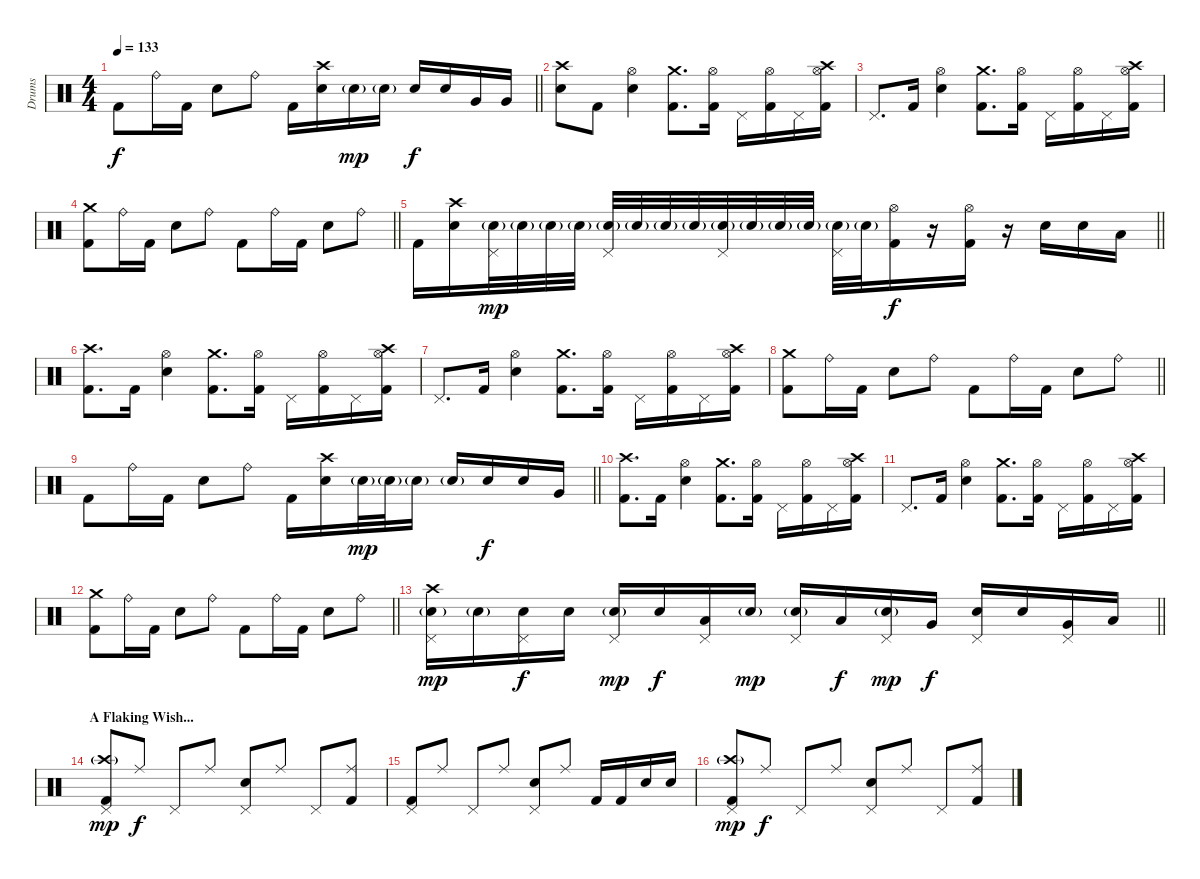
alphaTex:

\track ("Drums" "Drums") {instrument percussion}
\staff {score}
\articulation defaults
\ts (4 4)
\tempo 133
\clef neutral
\barLineRight lightlight
\ks c "Kick (hit) 2".8{dy f} "Ride (bell)".16 "Kick (hit) 2".16 "Snare (hit) 2".8 "Ride (bell)".8 "Kick (hit) 2".16
("Crash high (hit)" "Snare (hit) 2").16 "Electric Snare (hit)"{g}.16{dy mp} "Electric Snare (hit)"{g}.16 "Snare (hit) 2".16{dy f} "Snare (hit) 2".16 "Very Low Tom (hit)".16 "Very Low Tom (hit)".16 |
\section ("" "")
("Crash high (hit)" "Snare (hit) 2").8 "Kick (hit) 2".8 ("Hi-Hat (open)" "Snare (hit) 2").4 ("Crash medium (hit)" "Kick (hit) 2").8{d} ("Hi-Hat (open)" "Kick (hit) 2").16 "Pedal Hi-Hat (hit)".16 ("Hi-Hat (open)" "Kick (hit) 2").16 "Pedal Hi-Hat (hit)".16 ("Crash high (hit)" "Hi-Hat (open)" "Kick (hit) 2").16 |
"Pedal Hi-Hat (hit)".8{d} "Kick (hit) 2".16 ("Hi-Hat (open)" "Snare (hit) 2").4 ("Crash medium (hit)" "Kick (hit) 2").8{d} ("Hi-Hat (open)" "Kick (hit) 2").16 "Pedal Hi-Hat (hit)".16 ("Hi-Hat (open)" "Kick (hit) 2").16 "Pedal Hi-Hat (hit)".16 ("Crash high (hit)" "Hi-Hat (open)" "Kick (hit) 2").16 |
\barLineRight lightlight
("Crash medium (hit)" "Kick (hit) 2").8 "Ride (bell)".16 "Kick (hit) 2".16 "Snare (hit) 2".8 "Ride (bell)".8 "Kick (hit) 2".8 "Ride (bell)".16 "Kick (hit) 2".16 "Snare (hit) 2".8 "Ride (bell)".8 |
\barLineRight lightlight "Kick (hit) 2".16
("Crash high (hit)" "Snare (hit) 2").16 ("Pedal Hi-Hat (hit)" "Electric Snare (hit)"{g}).32{dy mp} "Electric Snare (hit)"{g}.32 "Electric Snare (hit)"{g}.32 "Electric Snare (hit)"{g}.32 ("Pedal Hi-Hat (hit)" "Electric Snare (hit)"{g}).32 "Electric Snare (hit)"{g}.32 "Electric Snare (hit)"{g}.32 "Electric Snare (hit)"{g}.32 ("Pedal Hi-Hat (hit)" "Electric Snare (hit)"{g}).32 "Electric Snare (hit)"{g}.32 "Electric Snare (hit)"{g}.32 "Electric Snare (hit)"{g}.32 ("Pedal Hi-Hat (hit)" "Electric Snare (hit)"{g}).32 "Electric Snare (hit)"{g}.32 ("Hi-Hat (open)" "Kick (hit) 2").16{dy f} r.16 ("Hi-Hat (open)" "Kick (hit) 2").16 r.16 "Snare (hit) 2".16 "Snare (hit) 2".16 "Low Tom (hit)".16 |
\section ("" "")
("Crash high (hit)" "Kick (hit) 2").8{d} "Kick (hit) 2".16 ("Hi-Hat (open)" "Snare (hit) 2").4 ("Crash medium (hit)" "Kick (hit) 2").8{d} ("Hi-Hat (open)" "Kick (hit) 2").16 "Pedal Hi-Hat (hit)".16 ("Hi-Hat (open)" "Kick (hit) 2").16 "Pedal Hi-Hat (hit)".16 ("Crash high (hit)" "Hi-Hat (open)" "Kick (hit) 2").16 |
"Pedal Hi-Hat (hit)".8{d} "Kick (hit) 2".16 ("Hi-Hat (open)" "Snare (hit) 2").4 ("Crash medium (hit)" "Kick (hit) 2").8{d} ("Hi-Hat (open)" "Kick (hit) 2").16 "Pedal Hi-Hat (hit)".16 ("Hi-Hat (open)" "Kick (hit) 2").16 "Pedal Hi-Hat (hit)".16 ("Crash high (hit)" "Hi-Hat (open)" "Kick (hit) 2").16 |
\barLineRight lightlight
("Crash medium (hit)" "Kick (hit) 2").8 "Ride (bell)".16 "Kick (hit) 2".16 "Snare (hit) 2".8 "Ride (bell)".8 "Kick (hit) 2".8 "Ride (bell)".16 "Kick (hit) 2".16 "Snare (hit) 2".8 "Ride (bell)".8 |
\barLineRight lightlight "Kick (hit) 2".8 "Ride (bell)".16 "Kick (hit) 2".16 "Snare (hit) 2".8 "Ride (bell)".8 "Kick (hit) 2".16
("Crash high (hit)" "Snare (hit) 2").16 "Electric Snare (hit)"{g}.32{dy mp} "Electric Snare (hit)"{g}.32 "Snare (hit) 2"{g}.16 "Snare (hit) 2"{g}.16 "Snare (hit) 2".16{dy f} "Snare (hit) 2".16 "Very Low Tom (hit)".16 |
\section ("" "")
("Crash high (hit)" "Kick (hit) 2").8{d} "Kick (hit) 2".16 ("Hi-Hat (open)" "Snare (hit) 2").4 ("Crash medium (hit)" "Kick (hit) 2").8{d} ("Hi-Hat (open)" "Kick (hit) 2").16 "Pedal Hi-Hat (hit)".16 ("Hi-Hat (open)" "Kick (hit) 2").16 "Pedal Hi-Hat (hit)".16 ("Crash high (hit)" "Hi-Hat (open)" "Kick (hit) 2").16 |
"Pedal Hi-Hat (hit)".8{d} "Kick (hit) 2".16 ("Hi-Hat (open)" "Snare (hit) 2").4 ("Crash medium (hit)" "Kick (hit) 2").8{d} ("Hi-Hat (open)" "Kick (hit) 2").16 "Pedal Hi-Hat (hit)".16 ("Hi-Hat (open)" "Kick (hit) 2").16 "Pedal Hi-Hat (hit)".16 ("Crash high (hit)" "Hi-Hat (open)" "Kick (hit) 2").16 |
\barLineRight lightlight
("Crash medium (hit)" "Kick (hit) 2").8 "Ride (bell)".16 "Kick (hit) 2".16 "Snare (hit) 2".8 "Ride (bell)".8 "Kick (hit) 2".8 "Ride (bell)".16 "Kick (hit) 2".16 "Snare (hit) 2".8 "Ride (bell)".8 |
\barLineRight lightlight
("Crash high (hit)" "Pedal Hi-Hat (hit)" "Electric Snare (hit)"{g}).16{dy mp} "Electric Snare (hit)"{g}.16 ("Pedal Hi-Hat (hit)" "Snare (hit) 2").16{dy f} "Snare (hit) 2".16 ("Pedal Hi-Hat (hit)" "Electric Snare (hit)"{g}).16{dy mp} "Snare (hit) 2".16{dy f} ("Pedal Hi-Hat (hit)" "Low Floor Tom (hit)").16 "Electric Snare (hit)"{g}.16{dy mp} ("Pedal Hi-Hat (hit)" "Electric Snare (hit)"{g}).16 "Low Tom (hit)".16{dy f} ("Pedal Hi-Hat (hit)" "Electric Snare (hit)"{g}).16{dy mp} "Very Low Tom (hit)".16{dy f} ("Pedal Hi-Hat (hit)" "Electric Snare (hit)").16 "Electric Snare (hit)".16 ("Pedal Hi-Hat (hit)" "Very Low Tom (hit)").16 "Low Floor Tom (hit)".16 |
\section ("" "A Flaking Wish...")
("Crash high (hit)"{g} "Pedal Hi-Hat (hit)" "Kick (hit) 2").8{dy mp} "Ride (middle)".8{dy f} "Pedal Hi-Hat (hit)".8 "Ride (middle)".8 ("Pedal Hi-Hat (hit)" "Snare (hit) 2").8 "Ride (middle)".8 "Pedal Hi-Hat (hit)".8 ("Ride (middle)" "Kick (hit) 2").8 |
("Pedal Hi-Hat (hit)" "Kick (hit) 2").8 "Ride (middle)".8 "Pedal Hi-Hat (hit)".8 "Ride (middle)".8 ("Pedal Hi-Hat (hit)" "Snare (hit) 2").8 "Ride (middle)".8 "Kick (hit) 2".16 "Kick (hit) 2".16 "Snare (hit) 2".16 "Snare (hit) 2".16 |
("Crash high (hit)"{g} "Pedal Hi-Hat (hit)" "Kick (hit) 2").8{dy mp} "Ride (middle)".8{dy f} "Pedal Hi-Hat (hit)".8 "Ride (middle)".8 ("Pedal Hi-Hat (hit)" "Snare (hit) 2").8 "Ride (middle)".8 "Pedal Hi-Hat (hit)".8 ("Ride (middle)" "Kick (hit) 2").8
